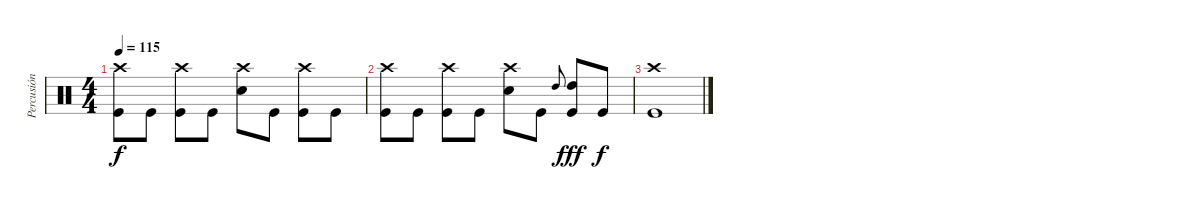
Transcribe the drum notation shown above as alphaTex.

\track ("Percusión" "Percusión") {instrument percussion}
\staff {score}
\articulation defaults
\ts (4 4)
\tempo 115
\clef neutral
\ks c
("Crash high (hit)" "Kick (hit)").8{dy f} "Kick (hit)".8 ("Crash high (hit)" "Kick (hit)").8 "Kick (hit)".8 ("Crash high (hit)" "Electric Snare (hit)").8 "Kick (hit)".8 ("Crash high (hit)" "Kick (hit)").8 "Kick (hit)".8 |
("Crash high (hit)" "Kick (hit)").8 "Kick (hit)".8 ("Crash high (hit)" "Kick (hit)").8 "Kick (hit)".8 ("Crash high (hit)" "Electric Snare (hit)").8 "Kick (hit)".8 "High Tom (hit)".8{gr onbeat} ("High Tom (hit)" "Kick (hit)").8{dy fff} "Kick (hit)".8{dy f} |
("Crash high (hit)" "Kick (hit)").1
